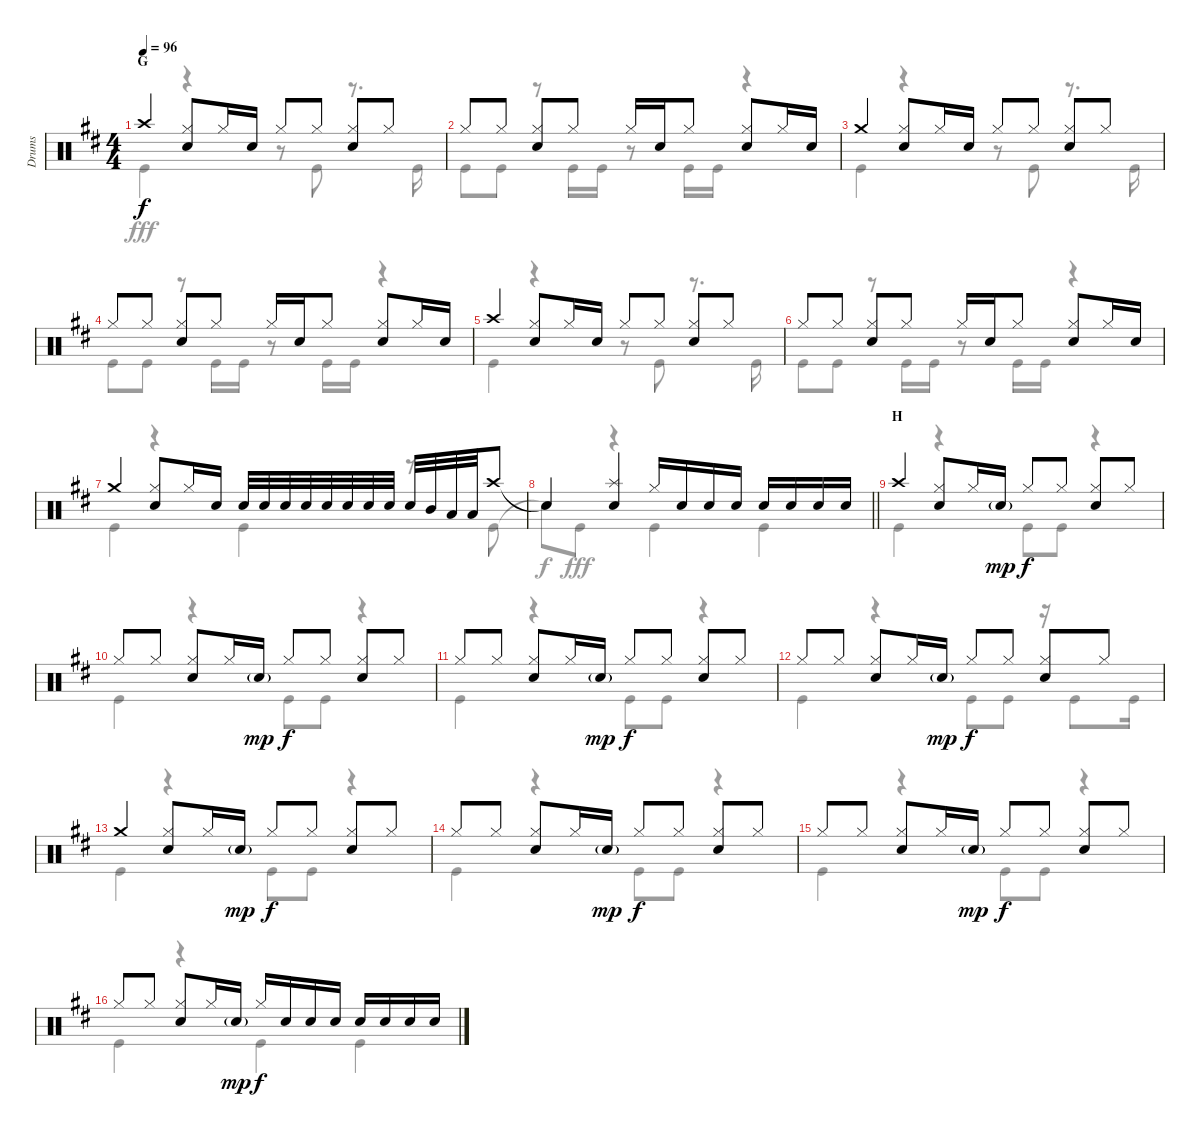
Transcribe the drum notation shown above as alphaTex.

\track ("Drums" "Drums") {instrument percussion}
\staff {score}
\articulation defaults
\voice
\ts (4 4)
\section ("" "G")
\tempo 96
\clef neutral
\ks d "Crash high (hit)".4{dy f}
("Hi-Hat (closed)" "Snare (hit) 2").8 "Hi-Hat (closed)".16 "Snare (hit) 2".16 "Hi-Hat (closed)".8 "Hi-Hat (closed)".8 ("Hi-Hat (closed)" "Snare (hit) 2").8 "Hi-Hat (closed)".8 |
"Hi-Hat (closed)".8 "Hi-Hat (closed)".8 ("Hi-Hat (closed)" "Snare (hit) 2").8 "Hi-Hat (closed)".8 "Hi-Hat (closed)".16 "Snare (hit) 2".16 "Hi-Hat (closed)".8 ("Hi-Hat (closed)" "Snare (hit) 2").8 "Hi-Hat (closed)".16 "Snare (hit) 2".16 |
"Crash medium (hit)".4 ("Hi-Hat (closed)" "Snare (hit) 2").8 "Hi-Hat (closed)".16 "Snare (hit) 2".16 "Hi-Hat (closed)".8 "Hi-Hat (closed)".8 ("Hi-Hat (closed)" "Snare (hit) 2").8 "Hi-Hat (closed)".8 |
"Hi-Hat (closed)".8 "Hi-Hat (closed)".8 ("Hi-Hat (closed)" "Snare (hit) 2").8 "Hi-Hat (closed)".8 "Hi-Hat (closed)".16 "Snare (hit) 2".16 "Hi-Hat (closed)".8 ("Hi-Hat (closed)" "Snare (hit) 2").8 "Hi-Hat (closed)".16 "Snare (hit) 2".16 |
"Crash high (hit)".4 ("Hi-Hat (closed)" "Snare (hit) 2").8 "Hi-Hat (closed)".16 "Snare (hit) 2".16 "Hi-Hat (closed)".8 "Hi-Hat (closed)".8 ("Hi-Hat (closed)" "Snare (hit) 2").8 "Hi-Hat (closed)".8 |
"Hi-Hat (closed)".8 "Hi-Hat (closed)".8 ("Hi-Hat (closed)" "Snare (hit) 2").8 "Hi-Hat (closed)".8 "Hi-Hat (closed)".16 "Snare (hit) 2".16 "Hi-Hat (closed)".8 ("Hi-Hat (closed)" "Snare (hit) 2").8 "Hi-Hat (closed)".16 "Snare (hit) 2".16 |
"Crash medium (hit)".4 ("Hi-Hat (closed)" "Snare (hit) 2").8 "Hi-Hat (closed)".16 "Snare (hit) 2".16 "Snare (hit) 2".32 "Snare (hit) 2".32 "Snare (hit) 2".32 "Snare (hit) 2".32 "Snare (hit) 2".32 "Snare (hit) 2".32 "Snare (hit) 2".32 "Snare (hit) 2".32 "Snare (hit) 2".32 "Mid Tom (hit)".32 "Low Tom (hit)".32 "Low Tom (hit)".32 "Crash high (hit)".8 |
\barLineRight lightlight "Snare (hit)"{t}.4
("Splash (hit)" "Snare (hit) 2").4 "Hi-Hat (closed)".16 "Snare (hit) 2".16 "Snare (hit) 2".16 "Snare (hit) 2".16 "Snare (hit) 2".16 "Snare (hit) 2".16 "Snare (hit) 2".16 "Snare (hit) 2".16 |
\section ("" "H")
"Crash high (hit)".4 ("Hi-Hat (closed)" "Snare (hit) 2").8 "Hi-Hat (closed)".16 "Snare (hit) 2"{g}.16{dy mp} "Hi-Hat (closed)".8{dy f} "Hi-Hat (closed)".8 ("Hi-Hat (closed)" "Snare (hit) 2").8 "Hi-Hat (closed)".8 |
"Hi-Hat (closed)".8 "Hi-Hat (closed)".8 ("Hi-Hat (closed)" "Snare (hit) 2").8 "Hi-Hat (closed)".16 "Snare (hit) 2"{g}.16{dy mp} "Hi-Hat (closed)".8{dy f} "Hi-Hat (closed)".8 ("Hi-Hat (closed)" "Snare (hit) 2").8 "Hi-Hat (closed)".8 |
"Hi-Hat (closed)".8 "Hi-Hat (closed)".8 ("Hi-Hat (closed)" "Snare (hit) 2").8 "Hi-Hat (closed)".16 "Snare (hit) 2"{g}.16{dy mp} "Hi-Hat (closed)".8{dy f} "Hi-Hat (closed)".8 ("Hi-Hat (closed)" "Snare (hit) 2").8 "Hi-Hat (closed)".8 |
"Hi-Hat (closed)".8 "Hi-Hat (closed)".8 ("Hi-Hat (closed)" "Snare (hit) 2").8 "Hi-Hat (closed)".16 "Snare (hit) 2"{g}.16{dy mp} "Hi-Hat (closed)".8{dy f} "Hi-Hat (closed)".8 ("Hi-Hat (closed)" "Snare (hit) 2").8 "Hi-Hat (closed)".8 |
"Crash medium (hit)".4 ("Hi-Hat (closed)" "Snare (hit) 2").8 "Hi-Hat (closed)".16 "Snare (hit) 2"{g}.16{dy mp} "Hi-Hat (closed)".8{dy f} "Hi-Hat (closed)".8 ("Hi-Hat (closed)" "Snare (hit) 2").8 "Hi-Hat (closed)".8 |
"Hi-Hat (closed)".8 "Hi-Hat (closed)".8 ("Hi-Hat (closed)" "Snare (hit) 2").8 "Hi-Hat (closed)".16 "Snare (hit) 2"{g}.16{dy mp} "Hi-Hat (closed)".8{dy f} "Hi-Hat (closed)".8 ("Hi-Hat (closed)" "Snare (hit) 2").8 "Hi-Hat (closed)".8 |
"Hi-Hat (closed)".8 "Hi-Hat (closed)".8 ("Hi-Hat (closed)" "Snare (hit) 2").8 "Hi-Hat (closed)".16 "Snare (hit) 2"{g}.16{dy mp} "Hi-Hat (closed)".8{dy f} "Hi-Hat (closed)".8 ("Hi-Hat (closed)" "Snare (hit) 2").8 "Hi-Hat (closed)".8 |
"Hi-Hat (closed)".8 "Hi-Hat (closed)".8 ("Hi-Hat (closed)" "Snare (hit) 2").8 "Hi-Hat (closed)".16 "Snare (hit) 2"{g}.16{dy mp} "Hi-Hat (closed)".16{dy f} "Snare (hit) 2".16 "Snare (hit) 2".16 "Snare (hit) 2".16 "Snare (hit) 2".16 "Snare (hit) 2".16 "Snare (hit) 2".16 "Snare (hit) 2".16
\voice
\clef neutral
\ottava regular
\simile none
\ks d "Kick (hit)".4{dy fff}
r.4 r.8 "Kick (hit)".8 r.8{d} "Kick (hit)".16 |
"Kick (hit)".8 "Kick (hit)".8 r.8 "Kick (hit)".16 "Kick (hit)".16 r.8 "Kick (hit)".16 "Kick (hit)".16 r.4 |
"Kick (hit)".4 r.4 r.8 "Kick (hit)".8 r.8{d} "Kick (hit)".16 |
"Kick (hit)".8 "Kick (hit)".8 r.8 "Kick (hit)".16 "Kick (hit)".16 r.8 "Kick (hit)".16 "Kick (hit)".16 r.4 |
"Kick (hit)".4 r.4 r.8 "Kick (hit)".8 r.8{d} "Kick (hit)".16 |
"Kick (hit)".8 "Kick (hit)".8 r.8 "Kick (hit)".16 "Kick (hit)".16 r.8 "Kick (hit)".16 "Kick (hit)".16 r.4 |
"Kick (hit)".4 r.4 "Kick (hit)".4 r.8 "Kick (hit)".8 |
\barLineRight lightlight "Snare (hit)"{t}.8{dy f} "Kick (hit)".8{dy fff}
r.4 "Kick (hit)".4 "Kick (hit)".4 |
"Kick (hit)".4 r.4 "Kick (hit)".8 "Kick (hit)".8 r.4 |
"Kick (hit)".4 r.4 "Kick (hit)".8 "Kick (hit)".8 r.4 |
"Kick (hit)".4 r.4 "Kick (hit)".8 "Kick (hit)".8 r.4 |
"Kick (hit)".4 r.4 "Kick (hit)".8 "Kick (hit)".8 r.16 "Kick (hit)".8 "Kick (hit)".16 |
"Kick (hit)".4 r.4 "Kick (hit)".8 "Kick (hit)".8 r.4 |
"Kick (hit)".4 r.4 "Kick (hit)".8 "Kick (hit)".8 r.4 |
"Kick (hit)".4 r.4 "Kick (hit)".8 "Kick (hit)".8 r.4 |
"Kick (hit)".4 r.4 "Kick (hit)".4 "Kick (hit)".4
